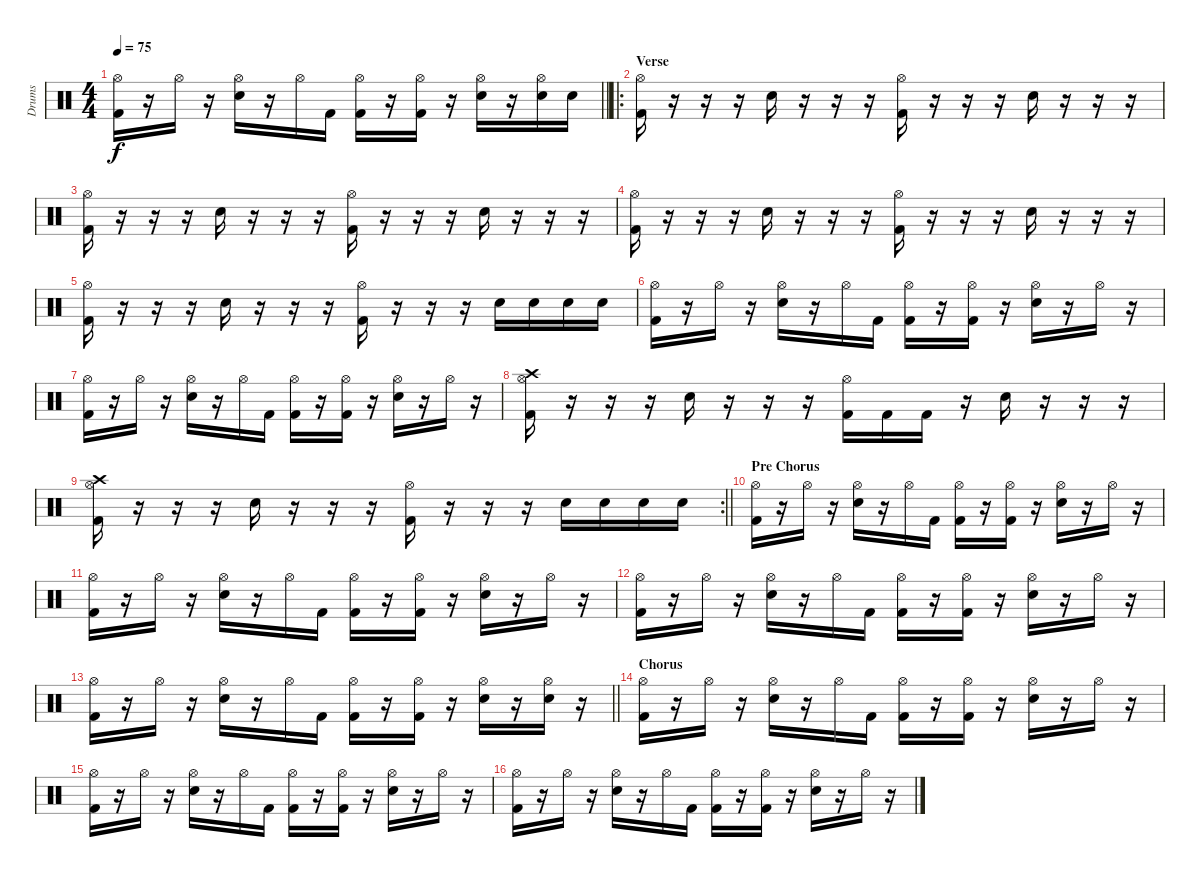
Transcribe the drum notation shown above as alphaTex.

\track ("Drums" "Drums") {instrument percussion}
\staff {score}
\articulation defaults
\ts (4 4)
\tempo 75
\clef neutral
\barLineRight lightlight
\ks c
("Hi-Hat (open)" "Kick (hit) 2").16{dy f} r.16 "Hi-Hat (open)".16 r.16 ("Hi-Hat (open)" "Electric Snare (hit)").16 r.16 "Hi-Hat (open)".16 "Kick (hit) 2".16 ("Hi-Hat (open)" "Kick (hit) 2").16 r.16 ("Hi-Hat (open)" "Kick (hit) 2").16 r.16 ("Hi-Hat (open)" "Electric Snare (hit)").16 r.16 ("Hi-Hat (open)" "Electric Snare (hit)").16 "Electric Snare (hit)".16 |
\ro
\section ("" "Verse")
("Hi-Hat (open)" "Kick (hit) 2").16 r.16 r.16 r.16 "Electric Snare (hit)".16 r.16 r.16 r.16 ("Hi-Hat (open)" "Kick (hit) 2").16 r.16 r.16 r.16 "Electric Snare (hit)".16 r.16 r.16 r.16 |
("Hi-Hat (open)" "Kick (hit) 2").16 r.16 r.16 r.16 "Electric Snare (hit)".16 r.16 r.16 r.16 ("Hi-Hat (open)" "Kick (hit) 2").16 r.16 r.16 r.16 "Electric Snare (hit)".16 r.16 r.16 r.16 |
("Hi-Hat (open)" "Kick (hit) 2").16 r.16 r.16 r.16 "Electric Snare (hit)".16 r.16 r.16 r.16 ("Hi-Hat (open)" "Kick (hit) 2").16 r.16 r.16 r.16 "Electric Snare (hit)".16 r.16 r.16 r.16 |
("Hi-Hat (open)" "Kick (hit) 2").16 r.16 r.16 r.16 "Electric Snare (hit)".16 r.16 r.16 r.16 ("Hi-Hat (open)" "Kick (hit) 2").16 r.16 r.16 r.16 "Electric Snare (hit)".16 "Electric Snare (hit)".16 "Electric Snare (hit)".16 "Electric Snare (hit)".16 |
("Hi-Hat (open)" "Kick (hit) 2").16 r.16 "Hi-Hat (open)".16 r.16 ("Hi-Hat (open)" "Electric Snare (hit)").16 r.16 "Hi-Hat (open)".16 "Kick (hit) 2".16 ("Hi-Hat (open)" "Kick (hit) 2").16 r.16 ("Hi-Hat (open)" "Kick (hit) 2").16 r.16 ("Hi-Hat (open)" "Electric Snare (hit)").16 r.16 "Hi-Hat (open)".16 r.16 |
("Hi-Hat (open)" "Kick (hit) 2").16 r.16 "Hi-Hat (open)".16 r.16 ("Hi-Hat (open)" "Electric Snare (hit)").16 r.16 "Hi-Hat (open)".16 "Kick (hit) 2".16 ("Hi-Hat (open)" "Kick (hit) 2").16 r.16 ("Hi-Hat (open)" "Kick (hit) 2").16 r.16 ("Hi-Hat (open)" "Electric Snare (hit)").16 r.16 "Hi-Hat (open)".16 r.16 |
("Hi-Hat (open)" "Crash high (hit)" "Kick (hit) 2").16 r.16 r.16 r.16 "Electric Snare (hit)".16 r.16 r.16 r.16 ("Hi-Hat (open)" "Kick (hit) 2").16 "Kick (hit) 2".16 "Kick (hit) 2".16 r.16 "Electric Snare (hit)".16 r.16 r.16 r.16 |
\rc 2
\barLineRight lightlight
("Hi-Hat (open)" "Crash high (hit)" "Kick (hit) 2").16 r.16 r.16 r.16 "Electric Snare (hit)".16 r.16 r.16 r.16 ("Hi-Hat (open)" "Kick (hit) 2").16 r.16 r.16 r.16 "Electric Snare (hit)".16 "Electric Snare (hit)".16 "Electric Snare (hit)".16 "Electric Snare (hit)".16 |
\section ("" "Pre Chorus")
("Hi-Hat (open)" "Kick (hit) 2").16 r.16 "Hi-Hat (open)".16 r.16 ("Hi-Hat (open)" "Electric Snare (hit)").16 r.16 "Hi-Hat (open)".16 "Kick (hit) 2".16 ("Hi-Hat (open)" "Kick (hit) 2").16 r.16 ("Hi-Hat (open)" "Kick (hit) 2").16 r.16 ("Hi-Hat (open)" "Electric Snare (hit)").16 r.16 "Hi-Hat (open)".16 r.16 |
("Hi-Hat (open)" "Kick (hit) 2").16 r.16 "Hi-Hat (open)".16 r.16 ("Hi-Hat (open)" "Electric Snare (hit)").16 r.16 "Hi-Hat (open)".16 "Kick (hit) 2".16 ("Hi-Hat (open)" "Kick (hit) 2").16 r.16 ("Hi-Hat (open)" "Kick (hit) 2").16 r.16 ("Hi-Hat (open)" "Electric Snare (hit)").16 r.16 "Hi-Hat (open)".16 r.16 |
("Hi-Hat (open)" "Kick (hit) 2").16 r.16 "Hi-Hat (open)".16 r.16 ("Hi-Hat (open)" "Electric Snare (hit)").16 r.16 "Hi-Hat (open)".16 "Kick (hit) 2".16 ("Hi-Hat (open)" "Kick (hit) 2").16 r.16 ("Hi-Hat (open)" "Kick (hit) 2").16 r.16 ("Hi-Hat (open)" "Electric Snare (hit)").16 r.16 "Hi-Hat (open)".16 r.16 |
\barLineRight lightlight
("Hi-Hat (open)" "Kick (hit) 2").16 r.16 "Hi-Hat (open)".16 r.16 ("Hi-Hat (open)" "Electric Snare (hit)").16 r.16 "Hi-Hat (open)".16 "Kick (hit) 2".16 ("Hi-Hat (open)" "Kick (hit) 2").16 r.16 ("Hi-Hat (open)" "Kick (hit) 2").16 r.16 ("Hi-Hat (open)" "Electric Snare (hit)").16 r.16 ("Hi-Hat (open)" "Electric Snare (hit)").16 r.16 |
\section ("" "Chorus")
("Hi-Hat (open)" "Kick (hit) 2").16 r.16 "Hi-Hat (open)".16 r.16 ("Hi-Hat (open)" "Electric Snare (hit)").16 r.16 "Hi-Hat (open)".16 "Kick (hit) 2".16 ("Hi-Hat (open)" "Kick (hit) 2").16 r.16 ("Hi-Hat (open)" "Kick (hit) 2").16 r.16 ("Hi-Hat (open)" "Electric Snare (hit)").16 r.16 "Hi-Hat (open)".16 r.16 |
("Hi-Hat (open)" "Kick (hit) 2").16 r.16 "Hi-Hat (open)".16 r.16 ("Hi-Hat (open)" "Electric Snare (hit)").16 r.16 "Hi-Hat (open)".16 "Kick (hit) 2".16 ("Hi-Hat (open)" "Kick (hit) 2").16 r.16 ("Hi-Hat (open)" "Kick (hit) 2").16 r.16 ("Hi-Hat (open)" "Electric Snare (hit)").16 r.16 "Hi-Hat (open)".16 r.16 |
("Hi-Hat (open)" "Kick (hit) 2").16 r.16 "Hi-Hat (open)".16 r.16 ("Hi-Hat (open)" "Electric Snare (hit)").16 r.16 "Hi-Hat (open)".16 "Kick (hit) 2".16 ("Hi-Hat (open)" "Kick (hit) 2").16 r.16 ("Hi-Hat (open)" "Kick (hit) 2").16 r.16 ("Hi-Hat (open)" "Electric Snare (hit)").16 r.16 "Hi-Hat (open)".16 r.16
